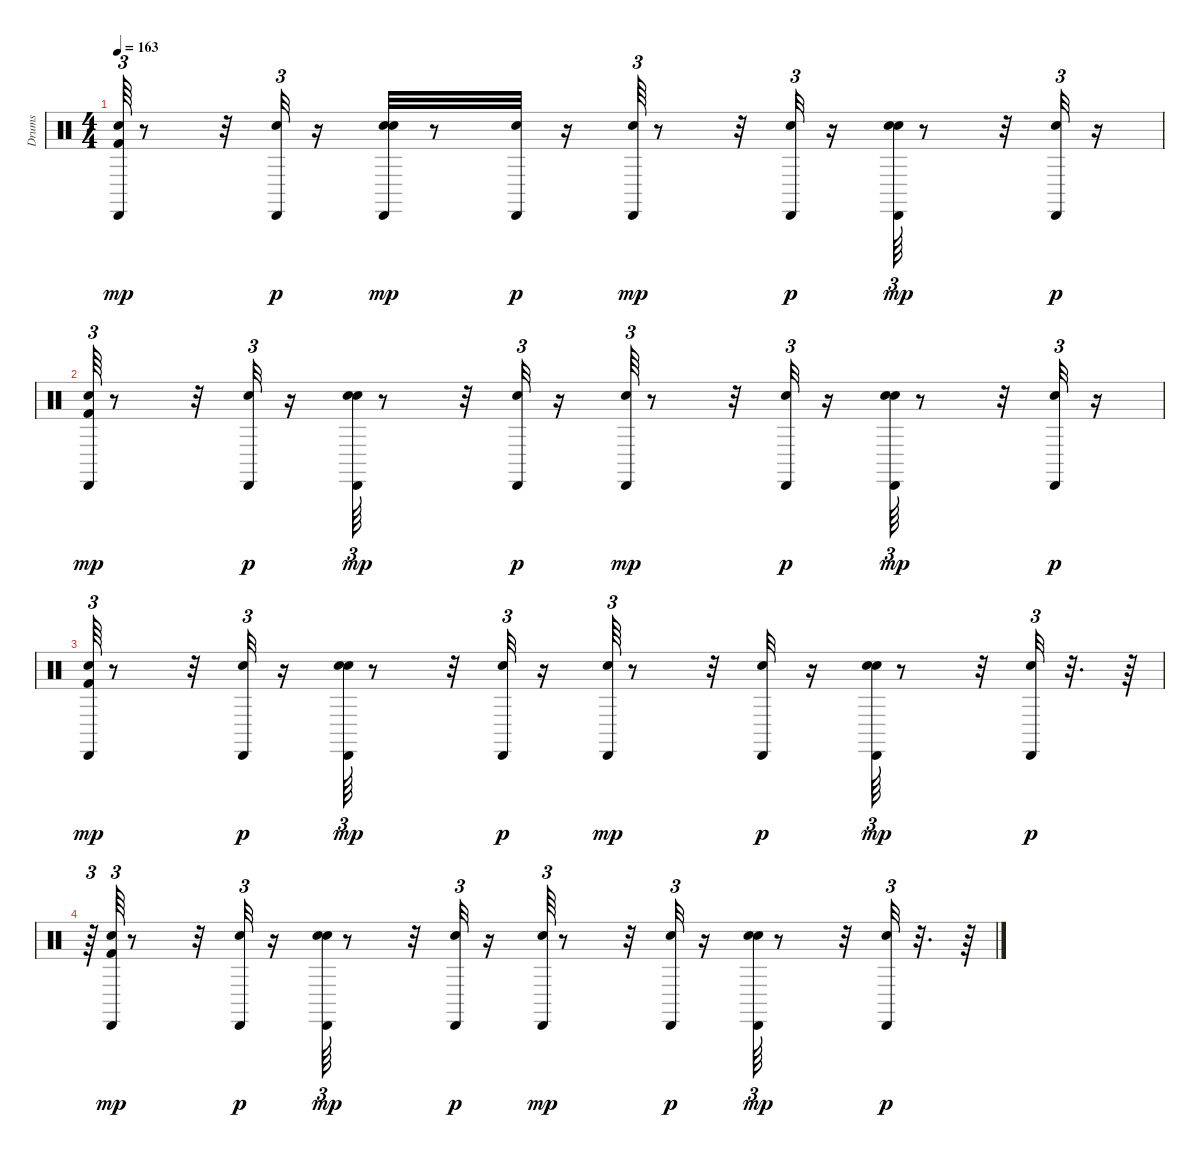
\track ("Drums               " "Drums     ") {instrument percussion}
\staff {score}
\articulation defaults
\ts (4 4)
\tempo 163
\clef neutral
\ks c
("Kick (hit) 2" "Snare (hit) 2" "Cabasa (hit)").64{tu (3 2) dy mp} r.8 r.32 ("Snare (hit) 2" "Cabasa (hit)").32{tu (3 2) dy p} r.16 ("Snare (hit) 2" "Hand Clap (hit)" "Cabasa (hit)").32{dy mp} r.8 ("Snare (hit) 2" "Cabasa (hit)").32{dy p} r.16 ("Snare (hit) 2" "Cabasa (hit)").64{tu (3 2) dy mp} r.8 r.32 ("Snare (hit) 2" "Cabasa (hit)").32{tu (3 2) dy p} r.16 ("Snare (hit) 2" "Hand Clap (hit)" "Cabasa (hit)").64{tu (3 2) dy mp} r.8 r.32 ("Snare (hit) 2" "Cabasa (hit)").32{tu (3 2) dy p} r.16 |
("Kick (hit) 2" "Snare (hit) 2" "Cabasa (hit)").64{tu (3 2) dy mp} r.8 r.32 ("Snare (hit) 2" "Cabasa (hit)").32{tu (3 2) dy p} r.16 ("Snare (hit) 2" "Hand Clap (hit)" "Cabasa (hit)").64{tu (3 2) dy mp} r.8 r.32 ("Snare (hit) 2" "Cabasa (hit)").32{tu (3 2) dy p} r.16 ("Snare (hit) 2" "Cabasa (hit)").64{tu (3 2) dy mp} r.8 r.32 ("Snare (hit) 2" "Cabasa (hit)").32{tu (3 2) dy p} r.16 ("Snare (hit) 2" "Hand Clap (hit)" "Cabasa (hit)").64{tu (3 2) dy mp} r.8 r.32 ("Snare (hit) 2" "Cabasa (hit)").32{tu (3 2) dy p} r.16 |
("Kick (hit) 2" "Snare (hit) 2" "Cabasa (hit)").64{tu (3 2) dy mp} r.8 r.32 ("Snare (hit) 2" "Cabasa (hit)").32{tu (3 2) dy p} r.16 ("Snare (hit) 2" "Hand Clap (hit)" "Cabasa (hit)").64{tu (3 2) dy mp} r.8 r.32 ("Snare (hit) 2" "Cabasa (hit)").32{tu (3 2) dy p} r.16 ("Snare (hit) 2" "Cabasa (hit)").64{tu (3 2) dy mp} r.8 r.32 ("Snare (hit) 2" "Cabasa (hit)").32{dy p} r.16 ("Snare (hit) 2" "Hand Clap (hit)" "Cabasa (hit)").64{tu (3 2) dy mp} r.8 r.32 ("Snare (hit) 2" "Cabasa (hit)").32{tu (3 2) dy p} r.32{d} r.64 |
r.64{tu (3 2)} ("Kick (hit) 2" "Snare (hit) 2" "Cabasa (hit)").64{tu (3 2) dy mp} r.8 r.32 ("Snare (hit) 2" "Cabasa (hit)").32{tu (3 2) dy p} r.16 ("Snare (hit) 2" "Hand Clap (hit)" "Cabasa (hit)").64{tu (3 2) dy mp} r.8 r.32 ("Snare (hit) 2" "Cabasa (hit)").32{tu (3 2) dy p} r.16 ("Snare (hit) 2" "Cabasa (hit)").64{tu (3 2) dy mp} r.8 r.32 ("Snare (hit) 2" "Cabasa (hit)").32{tu (3 2) dy p} r.16 ("Snare (hit) 2" "Hand Clap (hit)" "Cabasa (hit)").64{tu (3 2) dy mp} r.8 r.32 ("Snare (hit) 2" "Cabasa (hit)").32{tu (3 2) dy p} r.32{d} r.64
